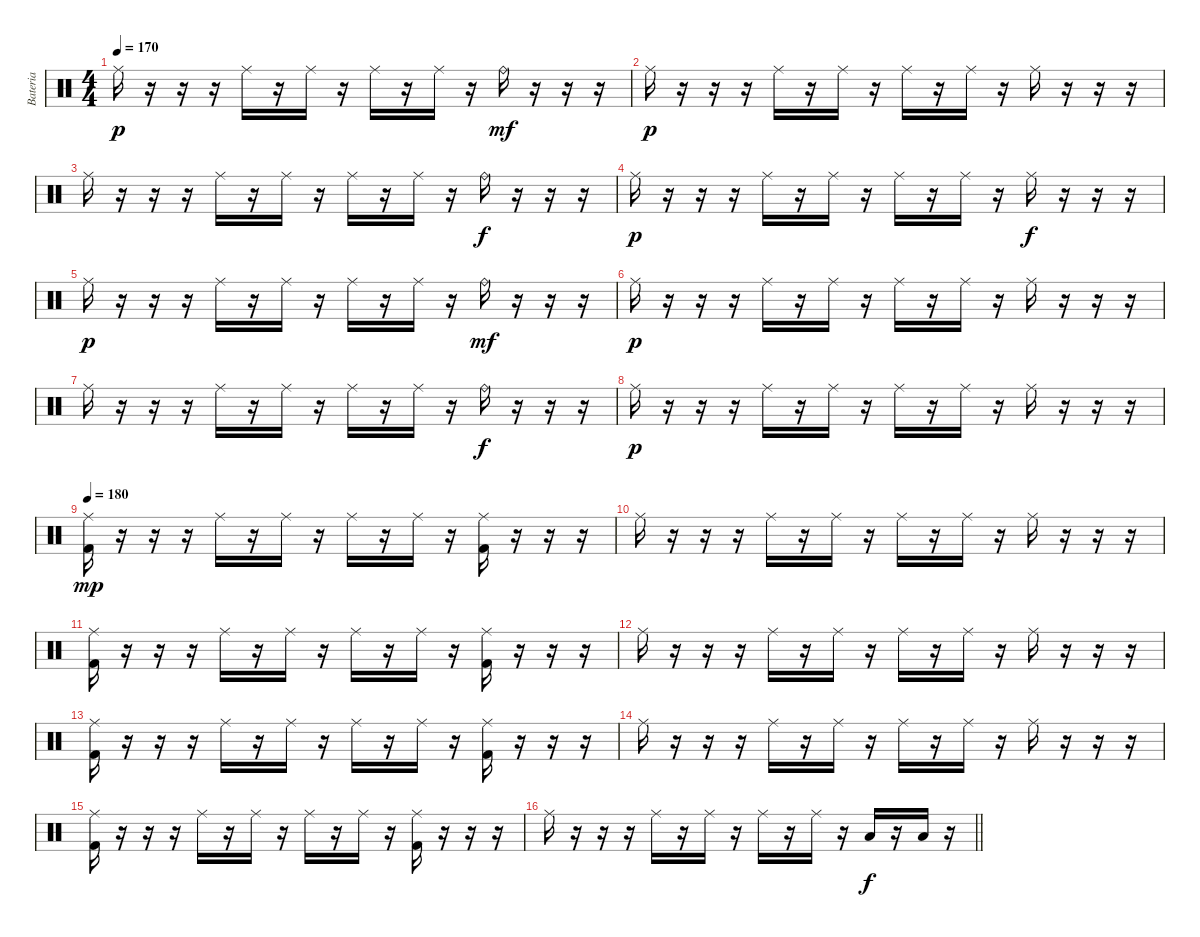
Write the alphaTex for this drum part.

\track ("Bateria" "Bateria") {instrument percussion}
\staff {score}
\articulation defaults
\ts (4 4)
\tempo 170
\clef neutral
\ks c "Ride (middle)".16{dy p}
r.16 r.16 r.16 "Ride (middle)".16 r.16 "Ride (middle)".16 r.16 "Ride (middle)".16 r.16 "Ride (middle)".16 r.16 "Ride (bell)".16{dy mf} r.16 r.16 r.16 |
"Ride (middle)".16{dy p} r.16 r.16 r.16 "Ride (middle)".16 r.16 "Ride (middle)".16 r.16 "Ride (middle)".16 r.16 "Ride (middle)".16 r.16 "Ride (middle)".16 r.16 r.16 r.16 |
"Ride (middle)".16 r.16 r.16 r.16 "Ride (middle)".16 r.16 "Ride (middle)".16 r.16 "Ride (middle)".16 r.16 "Ride (middle)".16 r.16 "Ride (bell)".16{dy f} r.16 r.16 r.16 |
"Ride (middle)".16{dy p} r.16 r.16 r.16 "Ride (middle)".16 r.16 "Ride (middle)".16 r.16 "Ride (middle)".16 r.16 "Ride (middle)".16 r.16 "Ride (middle)".16{dy f} r.16 r.16 r.16 |
"Ride (middle)".16{dy p} r.16 r.16 r.16 "Ride (middle)".16 r.16 "Ride (middle)".16 r.16 "Ride (middle)".16 r.16 "Ride (middle)".16 r.16 "Ride (bell)".16{dy mf} r.16 r.16 r.16 |
"Ride (middle)".16{dy p} r.16 r.16 r.16 "Ride (middle)".16 r.16 "Ride (middle)".16 r.16 "Ride (middle)".16 r.16 "Ride (middle)".16 r.16 "Ride (middle)".16 r.16 r.16 r.16 |
"Ride (middle)".16 r.16 r.16 r.16 "Ride (middle)".16 r.16 "Ride (middle)".16 r.16 "Ride (middle)".16 r.16 "Ride (middle)".16 r.16 "Ride (bell)".16{dy f} r.16 r.16 r.16 |
"Ride (middle)".16{dy p} r.16 r.16 r.16 "Ride (middle)".16 r.16 "Ride (middle)".16 r.16 "Ride (middle)".16 r.16 "Ride (middle)".16 r.16 "Ride (middle)".16 r.16 r.16 r.16 |
\tempo 180
("Ride (middle)" "Kick (hit) 2").16{dy mp} r.16 r.16 r.16 "Ride (middle)".16 r.16 "Ride (middle)".16 r.16 "Ride (middle)".16 r.16 "Ride (middle)".16 r.16 ("Ride (middle)" "Kick (hit) 2").16 r.16 r.16 r.16 |
"Ride (middle)".16 r.16 r.16 r.16 "Ride (middle)".16 r.16 "Ride (middle)".16 r.16 "Ride (middle)".16 r.16 "Ride (middle)".16 r.16 "Ride (middle)".16 r.16 r.16 r.16 |
("Ride (middle)" "Kick (hit) 2").16 r.16 r.16 r.16 "Ride (middle)".16 r.16 "Ride (middle)".16 r.16 "Ride (middle)".16 r.16 "Ride (middle)".16 r.16 ("Ride (middle)" "Kick (hit) 2").16 r.16 r.16 r.16 |
"Ride (middle)".16 r.16 r.16 r.16 "Ride (middle)".16 r.16 "Ride (middle)".16 r.16 "Ride (middle)".16 r.16 "Ride (middle)".16 r.16 "Ride (middle)".16 r.16 r.16 r.16 |
("Ride (middle)" "Kick (hit) 2").16 r.16 r.16 r.16 "Ride (middle)".16 r.16 "Ride (middle)".16 r.16 "Ride (middle)".16 r.16 "Ride (middle)".16 r.16 ("Ride (middle)" "Kick (hit) 2").16 r.16 r.16 r.16 |
"Ride (middle)".16 r.16 r.16 r.16 "Ride (middle)".16 r.16 "Ride (middle)".16 r.16 "Ride (middle)".16 r.16 "Ride (middle)".16 r.16 "Ride (middle)".16 r.16 r.16 r.16 |
("Ride (middle)" "Kick (hit) 2").16 r.16 r.16 r.16 "Ride (middle)".16 r.16 "Ride (middle)".16 r.16 "Ride (middle)".16 r.16 "Ride (middle)".16 r.16 ("Ride (middle)" "Kick (hit) 2").16 r.16 r.16 r.16 |
\barLineRight lightlight "Ride (middle)".16
r.16 r.16 r.16 "Ride (middle)".16 r.16 "Ride (middle)".16 r.16 "Ride (middle)".16 r.16 "Ride (middle)".16 r.16 "Low Tom (hit)".16{dy f} r.16 "Low Floor Tom (hit)".16 r.16
